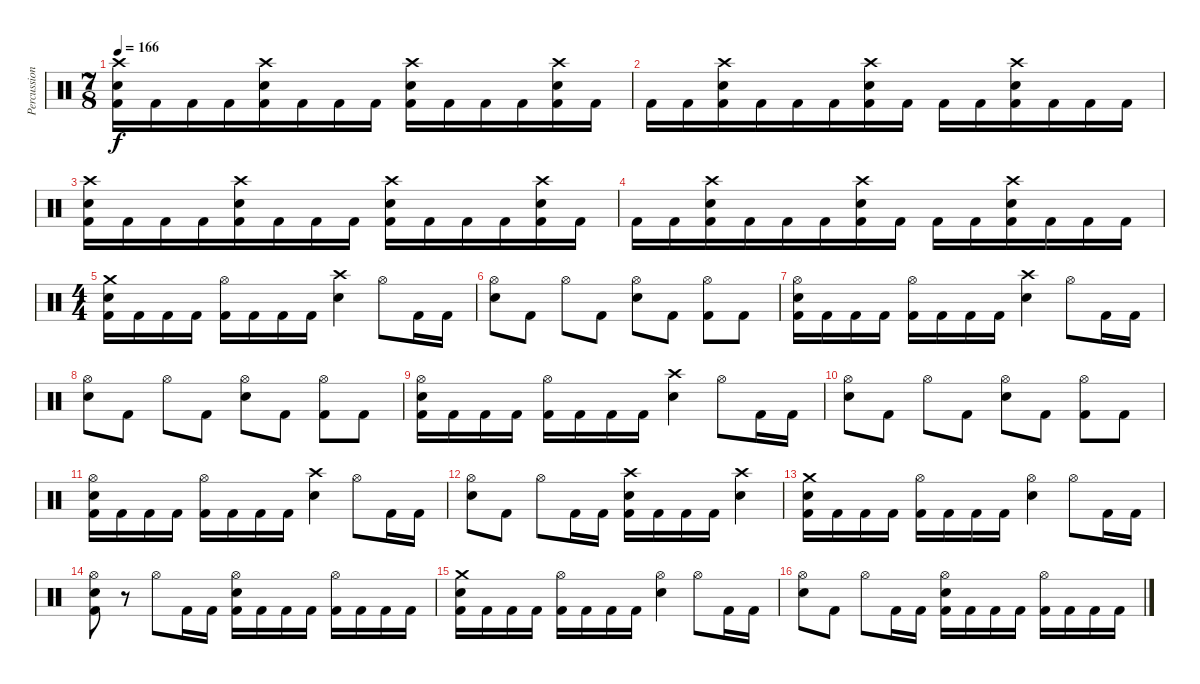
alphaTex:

\track ("Percussion" "Percussion") {instrument percussion}
\staff {score}
\articulation defaults
\ts (7 8)
\tempo 166
\clef neutral
\ks c
("Crash high (hit)" "Electric Snare (hit)" "Kick (hit) 2").16{dy f} "Kick (hit) 2".16 "Kick (hit) 2".16 "Kick (hit) 2".16 ("Crash high (hit)" "Electric Snare (hit)" "Kick (hit) 2").16 "Kick (hit) 2".16 "Kick (hit) 2".16 "Kick (hit) 2".16 ("Crash high (hit)" "Electric Snare (hit)" "Kick (hit) 2").16 "Kick (hit) 2".16 "Kick (hit) 2".16 "Kick (hit) 2".16 ("Crash high (hit)" "Electric Snare (hit)" "Kick (hit) 2").16 "Kick (hit) 2".16 |
"Kick (hit) 2".16 "Kick (hit) 2".16 ("Crash high (hit)" "Electric Snare (hit)" "Kick (hit) 2").16 "Kick (hit) 2".16 "Kick (hit) 2".16 "Kick (hit) 2".16 ("Crash high (hit)" "Electric Snare (hit)" "Kick (hit) 2").16 "Kick (hit) 2".16 "Kick (hit) 2".16 "Kick (hit) 2".16 ("Crash high (hit)" "Electric Snare (hit)" "Kick (hit) 2").16 "Kick (hit) 2".16 "Kick (hit) 2".16 "Kick (hit) 2".16 |
("Crash high (hit)" "Electric Snare (hit)" "Kick (hit) 2").16 "Kick (hit) 2".16 "Kick (hit) 2".16 "Kick (hit) 2".16 ("Crash high (hit)" "Electric Snare (hit)" "Kick (hit) 2").16 "Kick (hit) 2".16 "Kick (hit) 2".16 "Kick (hit) 2".16 ("Crash high (hit)" "Electric Snare (hit)" "Kick (hit) 2").16 "Kick (hit) 2".16 "Kick (hit) 2".16 "Kick (hit) 2".16 ("Crash high (hit)" "Electric Snare (hit)" "Kick (hit) 2").16 "Kick (hit) 2".16 |
"Kick (hit) 2".16 "Kick (hit) 2".16 ("Crash high (hit)" "Electric Snare (hit)" "Kick (hit) 2").16 "Kick (hit) 2".16 "Kick (hit) 2".16 "Kick (hit) 2".16 ("Crash high (hit)" "Electric Snare (hit)" "Kick (hit) 2").16 "Kick (hit) 2".16 "Kick (hit) 2".16 "Kick (hit) 2".16 ("Crash high (hit)" "Electric Snare (hit)" "Kick (hit) 2").16 "Kick (hit) 2".16 "Kick (hit) 2".16 "Kick (hit) 2".16 |
\ts (4 4)
("Crash medium (hit)" "Electric Snare (hit)" "Kick (hit) 2").16 "Kick (hit) 2".16 "Kick (hit) 2".16 "Kick (hit) 2".16 ("Hi-Hat (open)" "Kick (hit) 2").16 "Kick (hit) 2".16 "Kick (hit) 2".16 "Kick (hit) 2".16 ("Crash high (hit)" "Electric Snare (hit)").4 "Hi-Hat (open)".8 "Kick (hit) 2".16 "Kick (hit) 2".16 |
("Hi-Hat (open)" "Electric Snare (hit)").8 "Kick (hit) 2".8 "Hi-Hat (open)".8 "Kick (hit) 2".8 ("Hi-Hat (open)" "Electric Snare (hit)").8 "Kick (hit) 2".8 ("Hi-Hat (open)" "Kick (hit) 2").8 "Kick (hit) 2".8 |
("Hi-Hat (open)" "Electric Snare (hit)" "Kick (hit) 2").16 "Kick (hit) 2".16 "Kick (hit) 2".16 "Kick (hit) 2".16 ("Hi-Hat (open)" "Kick (hit) 2").16 "Kick (hit) 2".16 "Kick (hit) 2".16 "Kick (hit) 2".16 ("Crash high (hit)" "Electric Snare (hit)").4 "Hi-Hat (open)".8 "Kick (hit) 2".16 "Kick (hit) 2".16 |
("Hi-Hat (open)" "Electric Snare (hit)").8 "Kick (hit) 2".8 "Hi-Hat (open)".8 "Kick (hit) 2".8 ("Hi-Hat (open)" "Electric Snare (hit)").8 "Kick (hit) 2".8 ("Hi-Hat (open)" "Kick (hit) 2").8 "Kick (hit) 2".8 |
("Hi-Hat (open)" "Electric Snare (hit)" "Kick (hit) 2").16 "Kick (hit) 2".16 "Kick (hit) 2".16 "Kick (hit) 2".16 ("Hi-Hat (open)" "Kick (hit) 2").16 "Kick (hit) 2".16 "Kick (hit) 2".16 "Kick (hit) 2".16 ("Crash high (hit)" "Electric Snare (hit)").4 "Hi-Hat (open)".8 "Kick (hit) 2".16 "Kick (hit) 2".16 |
("Hi-Hat (open)" "Electric Snare (hit)").8 "Kick (hit) 2".8 "Hi-Hat (open)".8 "Kick (hit) 2".8 ("Hi-Hat (open)" "Electric Snare (hit)").8 "Kick (hit) 2".8 ("Hi-Hat (open)" "Kick (hit) 2").8 "Kick (hit) 2".8 |
("Hi-Hat (open)" "Electric Snare (hit)" "Kick (hit) 2").16 "Kick (hit) 2".16 "Kick (hit) 2".16 "Kick (hit) 2".16 ("Hi-Hat (open)" "Kick (hit) 2").16 "Kick (hit) 2".16 "Kick (hit) 2".16 "Kick (hit) 2".16 ("Crash high (hit)" "Electric Snare (hit)").4 "Hi-Hat (open)".8 "Kick (hit) 2".16 "Kick (hit) 2".16 |
("Hi-Hat (open)" "Electric Snare (hit)").8 "Kick (hit) 2".8 "Hi-Hat (open)".8 "Kick (hit) 2".16 "Kick (hit) 2".16 ("Crash high (hit)" "Electric Snare (hit)" "Kick (hit) 2").16 "Kick (hit) 2".16 "Kick (hit) 2".16 "Kick (hit) 2".16 ("Crash high (hit)" "Electric Snare (hit)").4 |
("Crash medium (hit)" "Electric Snare (hit)" "Kick (hit) 2").16 "Kick (hit) 2".16 "Kick (hit) 2".16 "Kick (hit) 2".16 ("Hi-Hat (open)" "Kick (hit) 2").16 "Kick (hit) 2".16 "Kick (hit) 2".16 "Kick (hit) 2".16 ("Hi-Hat (open)" "Electric Snare (hit)").4 "Hi-Hat (open)".8 "Kick (hit) 2".16 "Kick (hit) 2".16 |
("Hi-Hat (open)" "Electric Snare (hit)" "Kick (hit) 2").8 r.8 "Hi-Hat (open)".8 "Kick (hit) 2".16 "Kick (hit) 2".16 ("Hi-Hat (open)" "Electric Snare (hit)" "Kick (hit) 2").16 "Kick (hit) 2".16 "Kick (hit) 2".16 "Kick (hit) 2".16 ("Hi-Hat (open)" "Kick (hit) 2").16 "Kick (hit) 2".16 "Kick (hit) 2".16 "Kick (hit) 2".16 |
("Crash medium (hit)" "Electric Snare (hit)" "Kick (hit) 2").16 "Kick (hit) 2".16 "Kick (hit) 2".16 "Kick (hit) 2".16 ("Hi-Hat (open)" "Kick (hit) 2").16 "Kick (hit) 2".16 "Kick (hit) 2".16 "Kick (hit) 2".16 ("Hi-Hat (open)" "Electric Snare (hit)").4 "Hi-Hat (open)".8 "Kick (hit) 2".16 "Kick (hit) 2".16 |
("Hi-Hat (open)" "Electric Snare (hit)").8 "Kick (hit) 2".8 "Hi-Hat (open)".8 "Kick (hit) 2".16 "Kick (hit) 2".16 ("Hi-Hat (open)" "Electric Snare (hit)" "Kick (hit) 2").16 "Kick (hit) 2".16 "Kick (hit) 2".16 "Kick (hit) 2".16 ("Hi-Hat (open)" "Kick (hit) 2").16 "Kick (hit) 2".16 "Kick (hit) 2".16 "Kick (hit) 2".16
